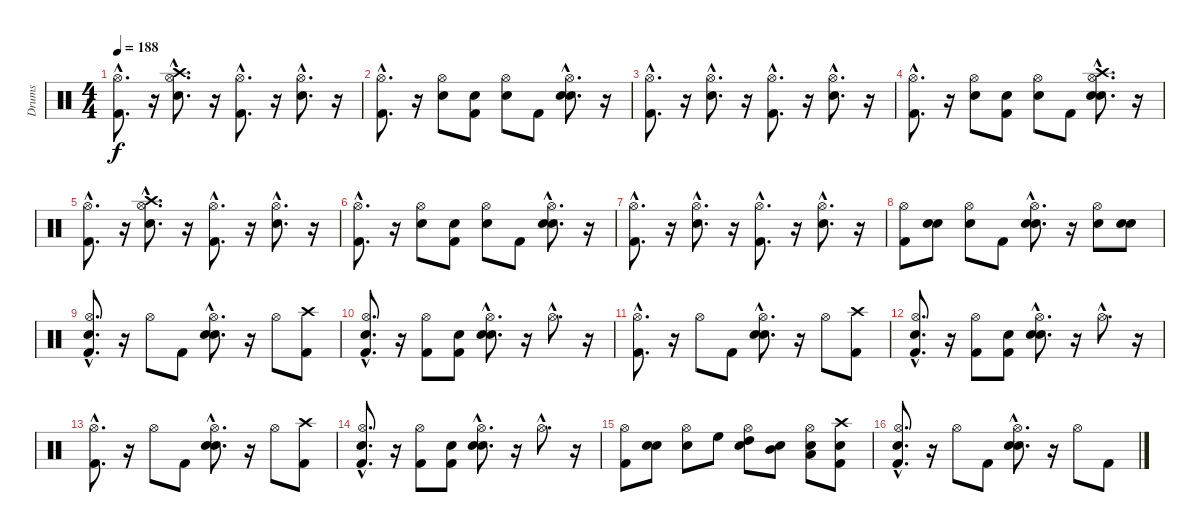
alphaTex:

\track ("Drums" "Drums") {instrument percussion}
\staff {score}
\articulation defaults
\ts (4 4)
\tempo 188
\clef neutral
\ks c
("Kick (hit) 2"{hac} "Hi-Hat (open)"{hac}).8{d dy f} r.16 ("Snare (hit) 2"{hac} "Hi-Hat (open)"{hac} "Crash high (hit)"{hac}).8{d} r.16 ("Kick (hit) 2"{hac} "Hi-Hat (open)"{hac}).8{d} r.16 ("Snare (hit) 2"{hac} "Hi-Hat (open)"{hac}).8{d} r.16 |
("Kick (hit) 2"{hac} "Hi-Hat (open)"{hac}).8{d} r.16 ("Snare (hit) 2" "Hi-Hat (open)").8 ("Snare (hit)" "Kick (hit) 2").8 ("Snare (hit)" "Hi-Hat (open)").8 "Kick (hit) 2".8 ("Snare (hit)"{hac} "Snare (hit) 2"{hac} "Hi-Hat (open)"{hac}).8{d} r.16 |
("Kick (hit) 2"{hac} "Hi-Hat (open)"{hac}).8{d} r.16 ("Snare (hit) 2"{hac} "Hi-Hat (open)"{hac}).8{d} r.16 ("Kick (hit) 2"{hac} "Hi-Hat (open)"{hac}).8{d} r.16 ("Snare (hit) 2"{hac} "Hi-Hat (open)"{hac}).8{d} r.16 |
("Kick (hit) 2"{hac} "Hi-Hat (open)"{hac}).8{d} r.16 ("Snare (hit) 2" "Hi-Hat (open)").8 ("Snare (hit)" "Kick (hit) 2").8 ("Snare (hit)" "Hi-Hat (open)").8 "Kick (hit) 2".8 ("Snare (hit)"{hac} "Snare (hit) 2"{hac} "Hi-Hat (open)"{hac} "Crash high (hit)"{hac}).8{d} r.16 |
("Kick (hit) 2"{hac} "Hi-Hat (open)"{hac}).8{d} r.16 ("Snare (hit) 2"{hac} "Hi-Hat (open)"{hac} "Crash high (hit)"{hac}).8{d} r.16 ("Kick (hit) 2"{hac} "Hi-Hat (open)"{hac}).8{d} r.16 ("Snare (hit) 2"{hac} "Hi-Hat (open)"{hac}).8{d} r.16 |
("Kick (hit) 2"{hac} "Hi-Hat (open)"{hac}).8{d} r.16 ("Snare (hit) 2" "Hi-Hat (open)").8 ("Snare (hit)" "Kick (hit) 2").8 ("Snare (hit)" "Hi-Hat (open)").8 "Kick (hit) 2".8 ("Snare (hit)"{hac} "Snare (hit) 2"{hac} "Hi-Hat (open)"{hac}).8{d} r.16 |
("Kick (hit) 2"{hac} "Hi-Hat (open)"{hac}).8{d} r.16 ("Snare (hit) 2"{hac} "Hi-Hat (open)"{hac}).8{d} r.16 ("Kick (hit) 2"{hac} "Hi-Hat (open)"{hac}).8{d} r.16 ("Snare (hit) 2"{hac} "Hi-Hat (open)"{hac}).8{d} r.16 |
("Kick (hit) 2" "Hi-Hat (open)").8 ("Snare (hit)" "Snare (hit) 2").8 ("Snare (hit)" "Hi-Hat (open)").8 "Kick (hit) 2".8 ("Snare (hit)"{hac} "Snare (hit) 2"{hac} "Hi-Hat (open)"{hac}).8{d} r.16 ("Snare (hit) 2" "Hi-Hat (open)").8 ("Snare (hit)" "Snare (hit) 2").8 |
("Snare (hit)"{hac} "Kick (hit) 2"{hac} "Hi-Hat (open)"{hac}).8{d} r.16 "Hi-Hat (open)".8 "Kick (hit) 2".8 ("Snare (hit)"{hac} "Snare (hit) 2"{hac} "Hi-Hat (open)"{hac}).8{d} r.16 "Hi-Hat (open)".8 ("Kick (hit) 2" "Crash high (hit)").8 |
("Snare (hit)"{hac} "Kick (hit) 2"{hac} "Hi-Hat (open)"{hac}).8{d} r.16 ("Kick (hit) 2" "Hi-Hat (open)").8 ("Snare (hit)" "Kick (hit) 2").8 ("Snare (hit)"{hac} "Snare (hit) 2"{hac} "Hi-Hat (open)"{hac}).8{d} r.16 "Hi-Hat (open)"{hac}.8{d} r.16 |
("Kick (hit) 2"{hac} "Hi-Hat (open)"{hac}).8{d} r.16 "Hi-Hat (open)".8 "Kick (hit) 2".8 ("Snare (hit)"{hac} "Snare (hit) 2"{hac} "Hi-Hat (open)"{hac}).8{d} r.16 "Hi-Hat (open)".8 ("Kick (hit) 2" "Crash high (hit)").8 |
("Snare (hit)"{hac} "Kick (hit) 2"{hac} "Hi-Hat (open)"{hac}).8{d} r.16 ("Kick (hit) 2" "Hi-Hat (open)").8 ("Snare (hit)" "Kick (hit) 2").8 ("Snare (hit)"{hac} "Snare (hit) 2"{hac} "Hi-Hat (open)"{hac}).8{d} r.16 "Hi-Hat (open)"{hac}.8{d} r.16 |
("Kick (hit) 2"{hac} "Hi-Hat (open)"{hac}).8{d} r.16 "Hi-Hat (open)".8 "Kick (hit) 2".8 ("Snare (hit)"{hac} "Snare (hit) 2"{hac} "Hi-Hat (open)"{hac}).8{d} r.16 "Hi-Hat (open)".8 ("Kick (hit) 2" "Crash high (hit)").8 |
("Snare (hit)"{hac} "Kick (hit) 2"{hac} "Hi-Hat (open)"{hac}).8{d} r.16 ("Kick (hit) 2" "Hi-Hat (open)").8 ("Snare (hit)" "Kick (hit) 2").8 ("Snare (hit)"{hac} "Snare (hit) 2"{hac} "Hi-Hat (open)"{hac}).8{d} r.16 "Hi-Hat (open)"{hac}.8{d} r.16 |
("Kick (hit) 2" "Hi-Hat (open)").8 ("Snare (hit)" "Snare (hit) 2").8 ("Snare (hit)" "Hi-Hat (open)").8 "High Floor Tom (hit)".8 ("Snare (hit)" "Hi-Hat (open)" "High Tom (hit)").8 ("Snare (hit)" "Mid Tom (hit)").8 ("Snare (hit)" "Low Tom (hit)" "Hi-Hat (open)").8 ("Snare (hit)" "Kick (hit) 2" "Crash high (hit)").8 |
("Snare (hit)"{hac} "Kick (hit) 2"{hac} "Hi-Hat (open)"{hac}).8{d} r.16 "Hi-Hat (open)".8 "Kick (hit) 2".8 ("Snare (hit)"{hac} "Snare (hit) 2"{hac} "Hi-Hat (open)"{hac}).8{d} r.16 "Hi-Hat (open)".8 "Kick (hit) 2".8
